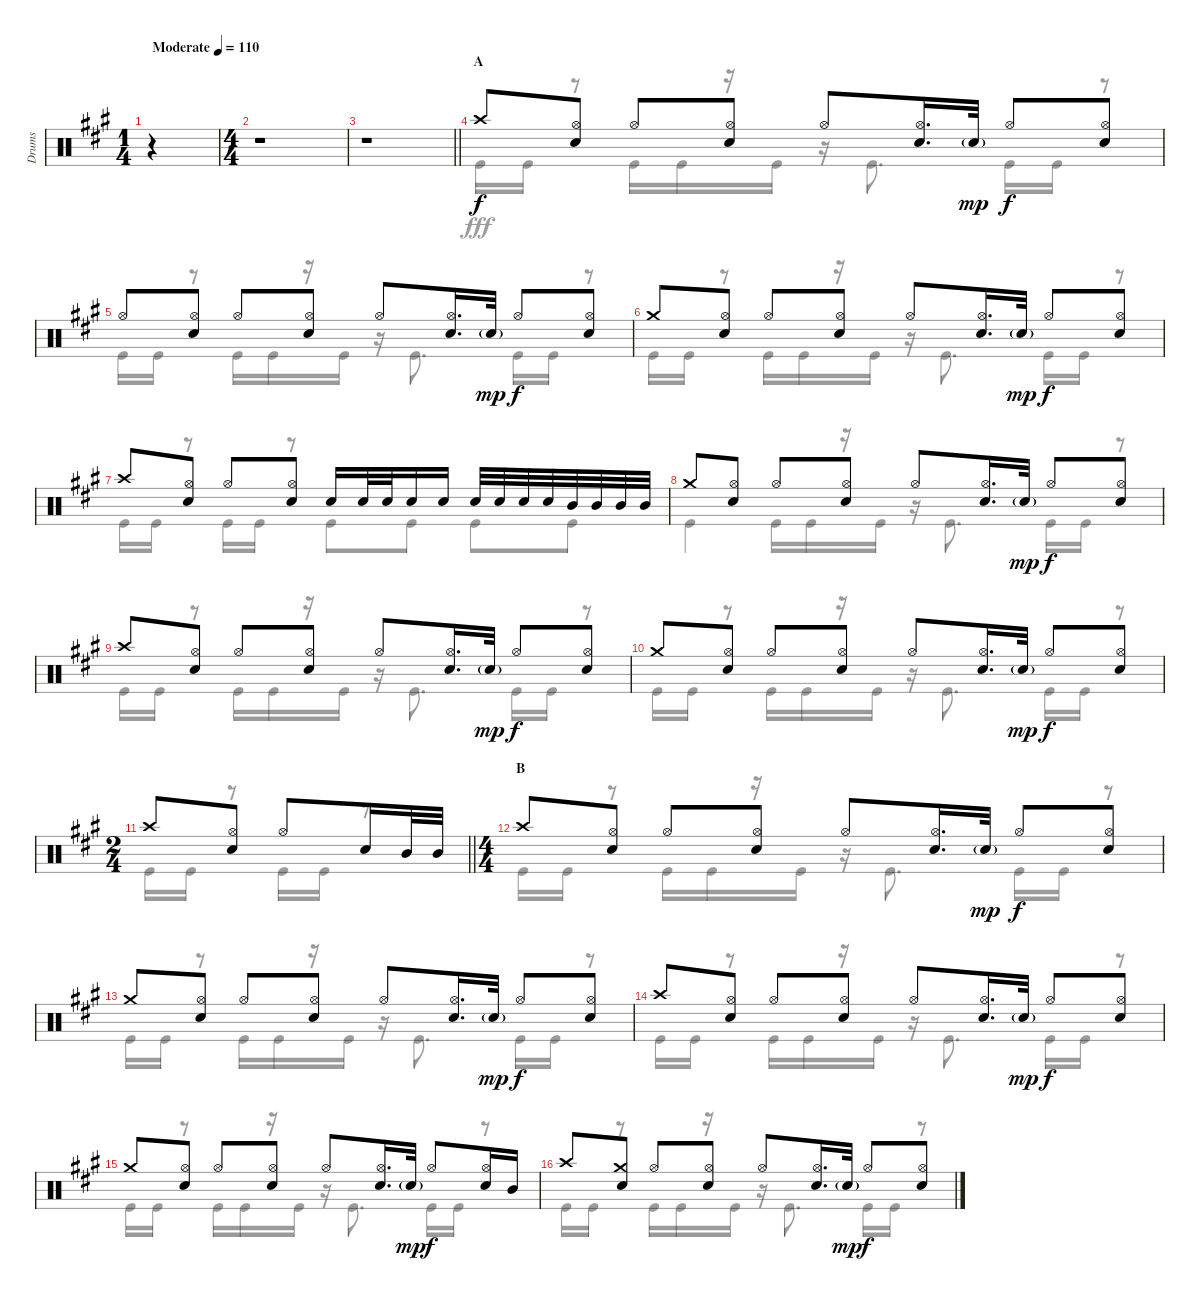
\track ("Drums" "Drums") {instrument percussion}
\staff {score}
\articulation defaults
\voice
\ts (1 4)
\tempo (110 "Moderate")
\clef neutral
\ks a
r.4{dy f} |
\ts (4 4)
r.1 |
\barLineRight lightlight
r.1 |
\section ("" "A")
"Crash high (hit)".8 ("Hi-Hat (open)" "Snare (hit) 2").8 "Hi-Hat (open)".8 ("Hi-Hat (open)" "Snare (hit) 2").8 "Hi-Hat (open)".8 ("Hi-Hat (open)" "Snare (hit) 2").16{d} "Snare (hit) 2"{g}.32{dy mp} "Hi-Hat (open)".8{dy f} ("Hi-Hat (open)" "Snare (hit) 2").8 |
"Hi-Hat (open)".8 ("Hi-Hat (open)" "Snare (hit) 2").8 "Hi-Hat (open)".8 ("Hi-Hat (open)" "Snare (hit) 2").8 "Hi-Hat (open)".8 ("Hi-Hat (open)" "Snare (hit) 2").16{d} "Snare (hit) 2"{g}.32{dy mp} "Hi-Hat (open)".8{dy f} ("Hi-Hat (open)" "Snare (hit) 2").8 |
"Crash medium (hit)".8 ("Hi-Hat (open)" "Snare (hit) 2").8 "Hi-Hat (open)".8 ("Hi-Hat (open)" "Snare (hit) 2").8 "Hi-Hat (open)".8 ("Hi-Hat (open)" "Snare (hit) 2").16{d} "Snare (hit) 2"{g}.32{dy mp} "Hi-Hat (open)".8{dy f} ("Hi-Hat (open)" "Snare (hit) 2").8 |
"Crash high (hit)".8 ("Hi-Hat (open)" "Snare (hit) 2").8 "Hi-Hat (open)".8 ("Hi-Hat (open)" "Snare (hit) 2").8 "Snare (hit) 2".16 "Snare (hit) 2".32 "Snare (hit) 2".32 "Snare (hit) 2".16 "Snare (hit) 2".16 "Snare (hit) 2".32 "Snare (hit) 2".32 "Snare (hit) 2".32 "Snare (hit) 2".32 "Mid Tom (hit)".32 "Mid Tom (hit)".32 "Mid Tom (hit)".32 "Mid Tom (hit)".32 |
"Crash medium (hit)".8 ("Hi-Hat (open)" "Snare (hit) 2").8 "Hi-Hat (open)".8 ("Hi-Hat (open)" "Snare (hit) 2").8 "Hi-Hat (open)".8 ("Hi-Hat (open)" "Snare (hit) 2").16{d} "Snare (hit) 2"{g}.32{dy mp} "Hi-Hat (open)".8{dy f} ("Hi-Hat (open)" "Snare (hit) 2").8 |
"Crash high (hit)".8 ("Hi-Hat (open)" "Snare (hit) 2").8 "Hi-Hat (open)".8 ("Hi-Hat (open)" "Snare (hit) 2").8 "Hi-Hat (open)".8 ("Hi-Hat (open)" "Snare (hit) 2").16{d} "Snare (hit) 2"{g}.32{dy mp} "Hi-Hat (open)".8{dy f} ("Hi-Hat (open)" "Snare (hit) 2").8 |
"Crash medium (hit)".8 ("Hi-Hat (open)" "Snare (hit) 2").8 "Hi-Hat (open)".8 ("Hi-Hat (open)" "Snare (hit) 2").8 "Hi-Hat (open)".8 ("Hi-Hat (open)" "Snare (hit) 2").16{d} "Snare (hit) 2"{g}.32{dy mp} "Hi-Hat (open)".8{dy f} ("Hi-Hat (open)" "Snare (hit) 2").8 |
\ts (2 4)
\barLineRight lightlight "Crash high (hit)".8
("Hi-Hat (open)" "Snare (hit) 2").8 "Hi-Hat (open)".8 "Snare (hit) 2".16 "Mid Tom (hit)".32 "Mid Tom (hit)".32 |
\ts (4 4)
\section ("" "B")
"Crash high (hit)".8 ("Hi-Hat (open)" "Snare (hit) 2").8 "Hi-Hat (open)".8 ("Hi-Hat (open)" "Snare (hit) 2").8 "Hi-Hat (open)".8 ("Hi-Hat (open)" "Snare (hit) 2").16{d} "Snare (hit) 2"{g}.32{dy mp} "Hi-Hat (open)".8{dy f} ("Hi-Hat (open)" "Snare (hit) 2").8 |
"Crash medium (hit)".8 ("Hi-Hat (open)" "Snare (hit) 2").8 "Hi-Hat (open)".8 ("Hi-Hat (open)" "Snare (hit) 2").8 "Hi-Hat (open)".8 ("Hi-Hat (open)" "Snare (hit) 2").16{d} "Snare (hit) 2"{g}.32{dy mp} "Hi-Hat (open)".8{dy f} ("Hi-Hat (open)" "Snare (hit) 2").8 |
"Crash high (hit)".8 ("Hi-Hat (open)" "Snare (hit) 2").8 "Hi-Hat (open)".8 ("Hi-Hat (open)" "Snare (hit) 2").8 "Hi-Hat (open)".8 ("Hi-Hat (open)" "Snare (hit) 2").16{d} "Snare (hit) 2"{g}.32{dy mp} "Hi-Hat (open)".8{dy f} ("Hi-Hat (open)" "Snare (hit) 2").8 |
"Crash medium (hit)".8 ("Hi-Hat (open)" "Snare (hit) 2").8 "Hi-Hat (open)".8 ("Hi-Hat (open)" "Snare (hit) 2").8 "Hi-Hat (open)".8 ("Hi-Hat (open)" "Snare (hit) 2").16{d} "Snare (hit) 2"{g}.32{dy mp} "Hi-Hat (open)".8{dy f} ("Hi-Hat (open)" "Snare (hit) 2").16 "Mid Tom (hit)".16 |
"Crash high (hit)".8 ("Crash medium (hit)" "Snare (hit) 2").8 "Hi-Hat (open)".8 ("Hi-Hat (open)" "Snare (hit) 2").8 "Hi-Hat (open)".8 ("Hi-Hat (open)" "Snare (hit) 2").16{d} "Snare (hit) 2"{g}.32{dy mp} "Hi-Hat (open)".8{dy f} ("Hi-Hat (open)" "Snare (hit) 2").8
\voice
\clef neutral
\ottava regular
\simile none
\ks a
r.4{dy fff} |
r.1 |
\barLineRight lightlight
r.1 |
"Kick (hit)".16 "Kick (hit)".16 r.8 "Kick (hit)".16 "Kick (hit)".16 r.16 "Kick (hit)".16 r.16 "Kick (hit)".8{d} "Kick (hit)".16 "Kick (hit)".16 r.8 |
"Kick (hit)".16 "Kick (hit)".16 r.8 "Kick (hit)".16 "Kick (hit)".16 r.16 "Kick (hit)".16 r.16 "Kick (hit)".8{d} "Kick (hit)".16 "Kick (hit)".16 r.8 |
"Kick (hit)".16 "Kick (hit)".16 r.8 "Kick (hit)".16 "Kick (hit)".16 r.16 "Kick (hit)".16 r.16 "Kick (hit)".8{d} "Kick (hit)".16 "Kick (hit)".16 r.8 |
"Kick (hit)".16 "Kick (hit)".16 r.8 "Kick (hit)".16 "Kick (hit)".16 r.8 "Kick (hit)".8 "Kick (hit)".8 "Kick (hit)".8 "Kick (hit)".8 |
"Kick (hit)".4 "Kick (hit)".16 "Kick (hit)".16 r.16 "Kick (hit)".16 r.16 "Kick (hit)".8{d} "Kick (hit)".16 "Kick (hit)".16 r.8 |
"Kick (hit)".16 "Kick (hit)".16 r.8 "Kick (hit)".16 "Kick (hit)".16 r.16 "Kick (hit)".16 r.16 "Kick (hit)".8{d} "Kick (hit)".16 "Kick (hit)".16 r.8 |
"Kick (hit)".16 "Kick (hit)".16 r.8 "Kick (hit)".16 "Kick (hit)".16 r.16 "Kick (hit)".16 r.16 "Kick (hit)".8{d} "Kick (hit)".16 "Kick (hit)".16 r.8 |
\barLineRight lightlight "Kick (hit)".16 "Kick (hit)".16
r.8 "Kick (hit)".16 "Kick (hit)".16 r.8 |
"Kick (hit)".16 "Kick (hit)".16 r.8 "Kick (hit)".16 "Kick (hit)".16 r.16 "Kick (hit)".16 r.16 "Kick (hit)".8{d} "Kick (hit)".16 "Kick (hit)".16 r.8 |
"Kick (hit)".16 "Kick (hit)".16 r.8 "Kick (hit)".16 "Kick (hit)".16 r.16 "Kick (hit)".16 r.16 "Kick (hit)".8{d} "Kick (hit)".16 "Kick (hit)".16 r.8 |
"Kick (hit)".16 "Kick (hit)".16 r.8 "Kick (hit)".16 "Kick (hit)".16 r.16 "Kick (hit)".16 r.16 "Kick (hit)".8{d} "Kick (hit)".16 "Kick (hit)".16 r.8 |
"Kick (hit)".16 "Kick (hit)".16 r.8 "Kick (hit)".16 "Kick (hit)".16 r.16 "Kick (hit)".16 r.16 "Kick (hit)".8{d} "Kick (hit)".16 "Kick (hit)".16 r.8 |
"Kick (hit)".16 "Kick (hit)".16 r.8 "Kick (hit)".16 "Kick (hit)".16 r.16 "Kick (hit)".16 r.16 "Kick (hit)".8{d} "Kick (hit)".16 "Kick (hit)".16 r.8
